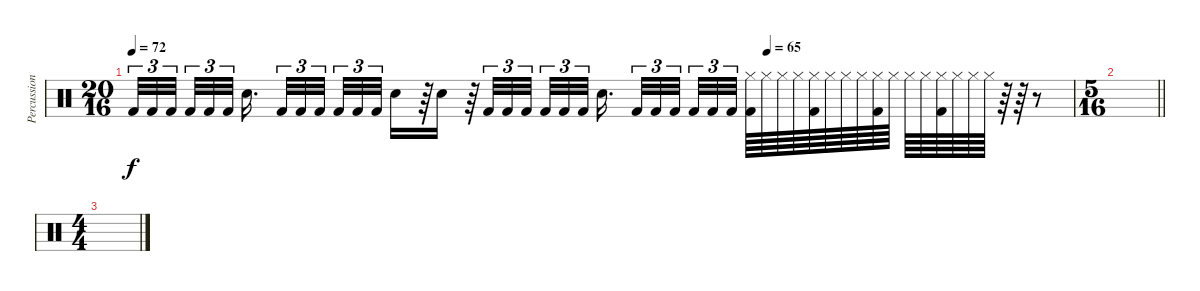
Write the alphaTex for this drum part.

\track ("Percussion" "Percussion") {instrument percussion}
\staff {score}
\articulation defaults
\ts (20 16)
\tempo 72
\tempo (65 0.675)
\clef neutral
\ks c "Kick (hit) 2".32{tu (3 2) dy f} "Kick (hit) 2".32{tu (3 2)} "Kick (hit) 2".32{tu (3 2)} "Kick (hit) 2".32{tu (3 2)} "Kick (hit) 2".32{tu (3 2)} "Kick (hit) 2".32{tu (3 2)} "Electric Snare (hit)".16{d} "Kick (hit) 2".32{tu (3 2)} "Kick (hit) 2".32{tu (3 2)} "Kick (hit) 2".32{tu (3 2) beam splitsecondary} "Kick (hit) 2".32{tu (3 2)} "Kick (hit) 2".32{tu (3 2)} "Kick (hit) 2".32{tu (3 2)} "Electric Snare (hit)".16
r.64 "Electric Snare (hit)".16 r.64 "Kick (hit) 2".32{tu (3 2)} "Kick (hit) 2".32{tu (3 2)} "Kick (hit) 2".32{tu (3 2)} "Kick (hit) 2".32{tu (3 2)} "Kick (hit) 2".32{tu (3 2)} "Kick (hit) 2".32{tu (3 2)} "Electric Snare (hit)".16{d} "Kick (hit) 2".32{tu (3 2)} "Kick (hit) 2".32{tu (3 2)} "Kick (hit) 2".32{tu (3 2) beam splitsecondary} "Kick (hit) 2".32{tu (3 2)} "Kick (hit) 2".32{tu (3 2)} "Kick (hit) 2".32{tu (3 2) beam splitsecondary} ("Hi-Hat (closed)" "Kick (hit) 2").64 "Hi-Hat (closed)".64 "Hi-Hat (closed)".64 "Hi-Hat (closed)".64 ("Hi-Hat (closed)" "Kick (hit) 2").64 "Hi-Hat (closed)".64 "Hi-Hat (closed)".64 "Hi-Hat (closed)".64 ("Hi-Hat (closed)" "Kick (hit) 2").64 "Hi-Hat (closed)".64 "Hi-Hat (closed)".64 "Hi-Hat (closed)".64 ("Hi-Hat (closed)" "Kick (hit) 2").64 "Hi-Hat (closed)".64 "Hi-Hat (closed)".64 "Hi-Hat (closed)".64 r.64 r.64 r.8 |
\ts (5 16)
\barLineRight lightlight
|
\ts (4 4)
